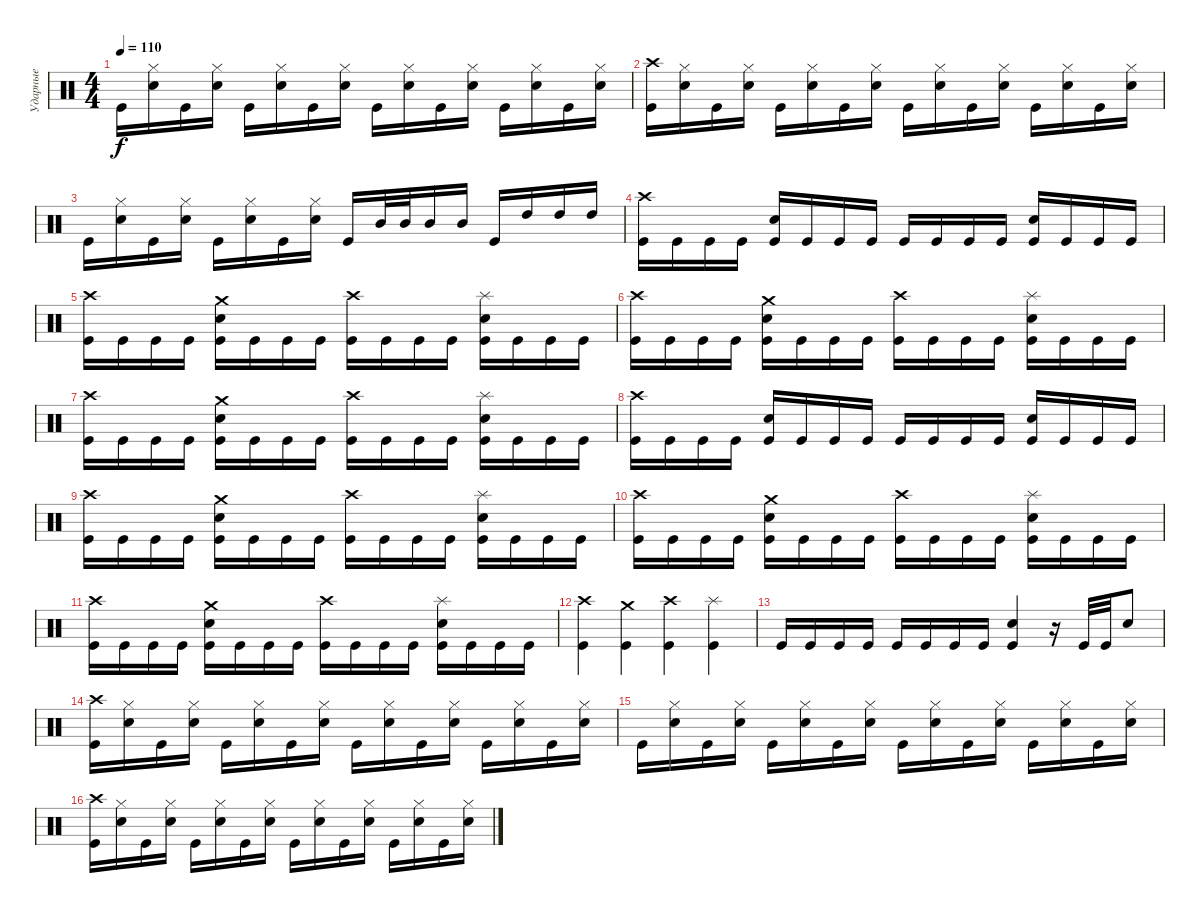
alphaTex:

\track ("Ударные" "Ударные") {instrument percussion}
\staff {score}
\articulation defaults
\ts (4 4)
\tempo 110
\clef neutral
\ks c "Kick (hit)".16{dy f}
("Hi-Hat (closed)" "Electric Snare (hit)").16 "Kick (hit)".16 ("Hi-Hat (closed)" "Electric Snare (hit)").16 "Kick (hit)".16 ("Hi-Hat (closed)" "Electric Snare (hit)").16 "Kick (hit)".16 ("Hi-Hat (closed)" "Electric Snare (hit)").16 "Kick (hit)".16 ("Hi-Hat (closed)" "Electric Snare (hit)").16 "Kick (hit)".16 ("Hi-Hat (closed)" "Electric Snare (hit)").16 "Kick (hit)".16 ("Hi-Hat (closed)" "Electric Snare (hit)").16 "Kick (hit)".16 ("Hi-Hat (closed)" "Electric Snare (hit)").16 |
("Crash high (hit)" "Kick (hit)").16 ("Hi-Hat (closed)" "Electric Snare (hit)").16 "Kick (hit)".16 ("Hi-Hat (closed)" "Electric Snare (hit)").16 "Kick (hit)".16 ("Hi-Hat (closed)" "Electric Snare (hit)").16 "Kick (hit)".16 ("Hi-Hat (closed)" "Electric Snare (hit)").16 "Kick (hit)".16 ("Hi-Hat (closed)" "Electric Snare (hit)").16 "Kick (hit)".16 ("Hi-Hat (closed)" "Electric Snare (hit)").16 "Kick (hit)".16 ("Hi-Hat (closed)" "Electric Snare (hit)").16 "Kick (hit)".16 ("Hi-Hat (closed)" "Electric Snare (hit)").16 |
"Kick (hit)".16 ("Hi-Hat (closed)" "Electric Snare (hit)").16 "Kick (hit)".16 ("Hi-Hat (closed)" "Electric Snare (hit)").16 "Kick (hit)".16 ("Hi-Hat (closed)" "Electric Snare (hit)").16 "Kick (hit)".16 ("Hi-Hat (closed)" "Electric Snare (hit)").16 "Kick (hit)".16 "Mid Tom (hit)".32 "Mid Tom (hit)".32 "Mid Tom (hit)".16 "Mid Tom (hit)".16 "Kick (hit)".16 "High Tom (hit)".16 "High Tom (hit)".16 "High Tom (hit)".16 |
("Crash high (hit)" "Kick (hit)").16 "Kick (hit)".16 "Kick (hit)".16 "Kick (hit)".16 ("Electric Snare (hit)" "Kick (hit)").16 "Kick (hit)".16 "Kick (hit)".16 "Kick (hit)".16 "Kick (hit)".16 "Kick (hit)".16 "Kick (hit)".16 "Kick (hit)".16 ("Electric Snare (hit)" "Kick (hit)").16 "Kick (hit)".16 "Kick (hit)".16 "Kick (hit)".16 |
("Crash high (hit)" "Kick (hit)").16 "Kick (hit)".16 "Kick (hit)".16 "Kick (hit)".16 ("Crash medium (hit)" "Electric Snare (hit)" "Kick (hit)").16 "Kick (hit)".16 "Kick (hit)".16 "Kick (hit)".16 ("Crash high (hit)" "Kick (hit)").16 "Kick (hit)".16 "Kick (hit)".16 "Kick (hit)".16 ("Splash (hit)" "Electric Snare (hit)" "Kick (hit)").16 "Kick (hit)".16 "Kick (hit)".16 "Kick (hit)".16 |
("Crash high (hit)" "Kick (hit)").16 "Kick (hit)".16 "Kick (hit)".16 "Kick (hit)".16 ("Crash medium (hit)" "Electric Snare (hit)" "Kick (hit)").16 "Kick (hit)".16 "Kick (hit)".16 "Kick (hit)".16 ("Crash high (hit)" "Kick (hit)").16 "Kick (hit)".16 "Kick (hit)".16 "Kick (hit)".16 ("Splash (hit)" "Electric Snare (hit)" "Kick (hit)").16 "Kick (hit)".16 "Kick (hit)".16 "Kick (hit)".16 |
("Crash high (hit)" "Kick (hit)").16 "Kick (hit)".16 "Kick (hit)".16 "Kick (hit)".16 ("Crash medium (hit)" "Electric Snare (hit)" "Kick (hit)").16 "Kick (hit)".16 "Kick (hit)".16 "Kick (hit)".16 ("Crash high (hit)" "Kick (hit)").16 "Kick (hit)".16 "Kick (hit)".16 "Kick (hit)".16 ("Splash (hit)" "Electric Snare (hit)" "Kick (hit)").16 "Kick (hit)".16 "Kick (hit)".16 "Kick (hit)".16 |
("Crash high (hit)" "Kick (hit)").16 "Kick (hit)".16 "Kick (hit)".16 "Kick (hit)".16 ("Electric Snare (hit)" "Kick (hit)").16 "Kick (hit)".16 "Kick (hit)".16 "Kick (hit)".16 "Kick (hit)".16 "Kick (hit)".16 "Kick (hit)".16 "Kick (hit)".16 ("Electric Snare (hit)" "Kick (hit)").16 "Kick (hit)".16 "Kick (hit)".16 "Kick (hit)".16 |
("Crash high (hit)" "Kick (hit)").16 "Kick (hit)".16 "Kick (hit)".16 "Kick (hit)".16 ("Crash medium (hit)" "Electric Snare (hit)" "Kick (hit)").16 "Kick (hit)".16 "Kick (hit)".16 "Kick (hit)".16 ("Crash high (hit)" "Kick (hit)").16 "Kick (hit)".16 "Kick (hit)".16 "Kick (hit)".16 ("Splash (hit)" "Electric Snare (hit)" "Kick (hit)").16 "Kick (hit)".16 "Kick (hit)".16 "Kick (hit)".16 |
("Crash high (hit)" "Kick (hit)").16 "Kick (hit)".16 "Kick (hit)".16 "Kick (hit)".16 ("Crash medium (hit)" "Electric Snare (hit)" "Kick (hit)").16 "Kick (hit)".16 "Kick (hit)".16 "Kick (hit)".16 ("Crash high (hit)" "Kick (hit)").16 "Kick (hit)".16 "Kick (hit)".16 "Kick (hit)".16 ("Splash (hit)" "Electric Snare (hit)" "Kick (hit)").16 "Kick (hit)".16 "Kick (hit)".16 "Kick (hit)".16 |
("Crash high (hit)" "Kick (hit)").16 "Kick (hit)".16 "Kick (hit)".16 "Kick (hit)".16 ("Crash medium (hit)" "Electric Snare (hit)" "Kick (hit)").16 "Kick (hit)".16 "Kick (hit)".16 "Kick (hit)".16 ("Crash high (hit)" "Kick (hit)").16 "Kick (hit)".16 "Kick (hit)".16 "Kick (hit)".16 ("Splash (hit)" "Electric Snare (hit)" "Kick (hit)").16 "Kick (hit)".16 "Kick (hit)".16 "Kick (hit)".16 |
("Crash high (hit)" "Kick (hit)").4 ("Crash medium (hit)" "Kick (hit)").4 ("Crash high (hit)" "Kick (hit)").4 ("Splash (hit)" "Kick (hit)").4 |
"Kick (hit)".16 "Kick (hit)".16 "Kick (hit)".16 "Kick (hit)".16 "Kick (hit)".16 "Kick (hit)".16 "Kick (hit)".16 "Kick (hit)".16 ("Electric Snare (hit)" "Kick (hit)").4 r.16 "Kick (hit)".32 "Kick (hit)".32 "Electric Snare (hit)".8 |
("Crash high (hit)" "Kick (hit)").16 ("Hi-Hat (closed)" "Electric Snare (hit)").16 "Kick (hit)".16 ("Hi-Hat (closed)" "Electric Snare (hit)").16 "Kick (hit)".16 ("Hi-Hat (closed)" "Electric Snare (hit)").16 "Kick (hit)".16 ("Hi-Hat (closed)" "Electric Snare (hit)").16 "Kick (hit)".16 ("Hi-Hat (closed)" "Electric Snare (hit)").16 "Kick (hit)".16 ("Hi-Hat (closed)" "Electric Snare (hit)").16 "Kick (hit)".16 ("Hi-Hat (closed)" "Electric Snare (hit)").16 "Kick (hit)".16 ("Hi-Hat (closed)" "Electric Snare (hit)").16 |
"Kick (hit)".16 ("Hi-Hat (closed)" "Electric Snare (hit)").16 "Kick (hit)".16 ("Hi-Hat (closed)" "Electric Snare (hit)").16 "Kick (hit)".16 ("Hi-Hat (closed)" "Electric Snare (hit)").16 "Kick (hit)".16 ("Hi-Hat (closed)" "Electric Snare (hit)").16 "Kick (hit)".16 ("Hi-Hat (closed)" "Electric Snare (hit)").16 "Kick (hit)".16 ("Hi-Hat (closed)" "Electric Snare (hit)").16 "Kick (hit)".16 ("Hi-Hat (closed)" "Electric Snare (hit)").16 "Kick (hit)".16 ("Hi-Hat (closed)" "Electric Snare (hit)").16 |
("Crash high (hit)" "Kick (hit)").16 ("Hi-Hat (closed)" "Electric Snare (hit)").16 "Kick (hit)".16 ("Hi-Hat (closed)" "Electric Snare (hit)").16 "Kick (hit)".16 ("Hi-Hat (closed)" "Electric Snare (hit)").16 "Kick (hit)".16 ("Hi-Hat (closed)" "Electric Snare (hit)").16 "Kick (hit)".16 ("Hi-Hat (closed)" "Electric Snare (hit)").16 "Kick (hit)".16 ("Hi-Hat (closed)" "Electric Snare (hit)").16 "Kick (hit)".16 ("Hi-Hat (closed)" "Electric Snare (hit)").16 "Kick (hit)".16 ("Hi-Hat (closed)" "Electric Snare (hit)").16
